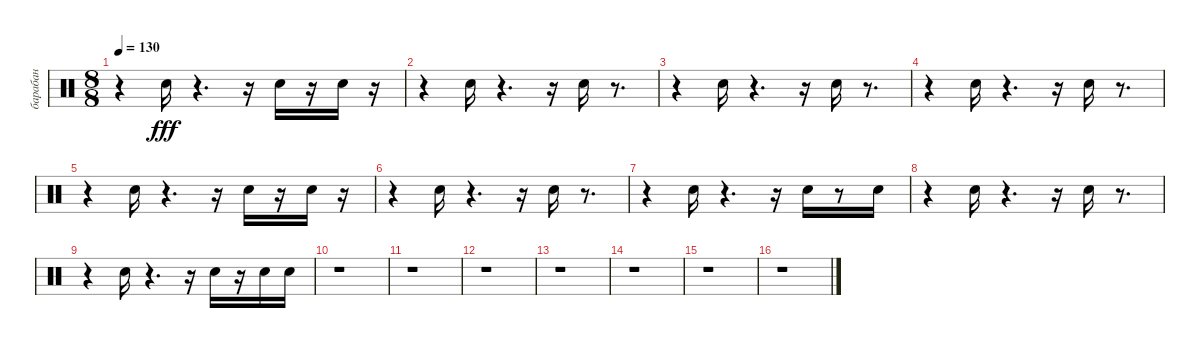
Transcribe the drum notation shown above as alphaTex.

\track ("барабан" "барабан") {instrument percussion}
\staff {score}
\articulation defaults
\ts (8 8)
\tempo 130
\clef neutral
\ks c
r.4{dy fff} "Snare (hit) 2".16 r.4{d} r.16 "Snare (hit) 2".16 r.16 "Snare (hit) 2".16 r.16 |
r.4 "Snare (hit) 2".16 r.4{d} r.16 "Snare (hit) 2".16 r.8{d} |
r.4 "Snare (hit) 2".16 r.4{d} r.16 "Snare (hit) 2".16 r.8{d} |
r.4 "Snare (hit) 2".16 r.4{d} r.16 "Snare (hit) 2".16 r.8{d} |
r.4 "Snare (hit) 2".16 r.4{d} r.16 "Snare (hit) 2".16 r.16 "Snare (hit) 2".16 r.16 |
r.4 "Snare (hit) 2".16 r.4{d} r.16 "Snare (hit) 2".16 r.8{d} |
r.4 "Snare (hit) 2".16 r.4{d} r.16 "Snare (hit) 2".16 r.8 "Snare (hit) 2".16 |
r.4 "Snare (hit) 2".16 r.4{d} r.16 "Snare (hit) 2".16 r.8{d} |
r.4 "Snare (hit) 2".16 r.4{d} r.16 "Snare (hit) 2".16 r.16 "Snare (hit) 2".16 "Snare (hit) 2".16 |
r.1 |
r.1 |
r.1 |
r.1 |
r.1 |
r.1 |
r.1
